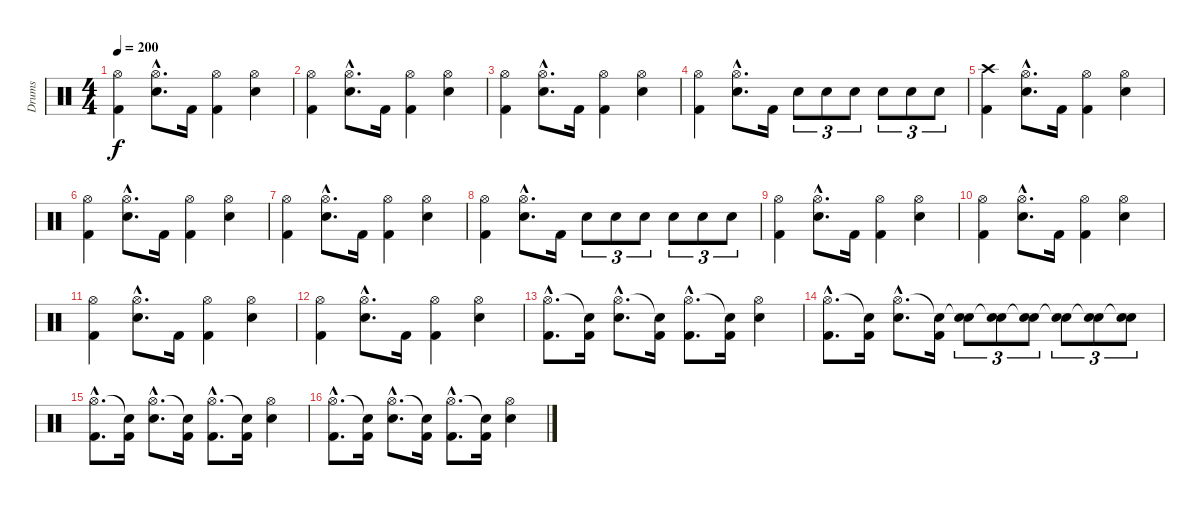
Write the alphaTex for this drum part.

\track ("Drums" "Drums") {instrument percussion}
\staff {score}
\articulation defaults
\ts (4 4)
\tempo 200
\clef neutral
\ks c
("Hi-Hat (open)" "Kick (hit) 2").4{dy f} ("Hi-Hat (open)"{hac} "Electric Snare (hit)"{hac}).8{d} "Kick (hit) 2".16 ("Hi-Hat (open)" "Kick (hit) 2").4 ("Hi-Hat (open)" "Electric Snare (hit)").4 |
("Hi-Hat (open)" "Kick (hit) 2").4 ("Hi-Hat (open)"{hac} "Electric Snare (hit)"{hac}).8{d} "Kick (hit) 2".16 ("Hi-Hat (open)" "Kick (hit) 2").4 ("Hi-Hat (open)" "Electric Snare (hit)").4 |
("Hi-Hat (open)" "Kick (hit) 2").4 ("Hi-Hat (open)"{hac} "Electric Snare (hit)"{hac}).8{d} "Kick (hit) 2".16 ("Hi-Hat (open)" "Kick (hit) 2").4 ("Hi-Hat (open)" "Electric Snare (hit)").4 |
("Hi-Hat (open)" "Kick (hit) 2").4 ("Hi-Hat (open)"{hac} "Electric Snare (hit)"{hac}).8{d} "Kick (hit) 2".16 "Electric Snare (hit)".8{tu (3 2)} "Electric Snare (hit)".8{tu (3 2)} "Electric Snare (hit)".8{tu (3 2)} "Electric Snare (hit)".8{tu (3 2)} "Electric Snare (hit)".8{tu (3 2)} "Electric Snare (hit)".8{tu (3 2)} |
("Crash high (hit)" "Kick (hit) 2").4 ("Hi-Hat (open)"{hac} "Electric Snare (hit)"{hac}).8{d} "Kick (hit) 2".16 ("Hi-Hat (open)" "Kick (hit) 2").4 ("Hi-Hat (open)" "Electric Snare (hit)").4 |
("Hi-Hat (open)" "Kick (hit) 2").4 ("Hi-Hat (open)"{hac} "Electric Snare (hit)"{hac}).8{d} "Kick (hit) 2".16 ("Hi-Hat (open)" "Kick (hit) 2").4 ("Hi-Hat (open)" "Electric Snare (hit)").4 |
("Hi-Hat (open)" "Kick (hit) 2").4 ("Hi-Hat (open)"{hac} "Electric Snare (hit)"{hac}).8{d} "Kick (hit) 2".16 ("Hi-Hat (open)" "Kick (hit) 2").4 ("Hi-Hat (open)" "Electric Snare (hit)").4 |
("Hi-Hat (open)" "Kick (hit) 2").4 ("Hi-Hat (open)"{hac} "Electric Snare (hit)"{hac}).8{d} "Kick (hit) 2".16 "Electric Snare (hit)".8{tu (3 2)} "Electric Snare (hit)".8{tu (3 2)} "Electric Snare (hit)".8{tu (3 2)} "Electric Snare (hit)".8{tu (3 2)} "Electric Snare (hit)".8{tu (3 2)} "Electric Snare (hit)".8{tu (3 2)} |
("Hi-Hat (open)" "Kick (hit) 2").4 ("Hi-Hat (open)"{hac} "Electric Snare (hit)"{hac}).8{d} "Kick (hit) 2".16 ("Hi-Hat (open)" "Kick (hit) 2").4 ("Hi-Hat (open)" "Electric Snare (hit)").4 |
("Hi-Hat (open)" "Kick (hit) 2").4 ("Hi-Hat (open)"{hac} "Electric Snare (hit)"{hac}).8{d} "Kick (hit) 2".16 ("Hi-Hat (open)" "Kick (hit) 2").4 ("Hi-Hat (open)" "Electric Snare (hit)").4 |
("Hi-Hat (open)" "Kick (hit) 2").4 ("Hi-Hat (open)"{hac} "Electric Snare (hit)"{hac}).8{d} "Kick (hit) 2".16 ("Hi-Hat (open)" "Kick (hit) 2").4 ("Hi-Hat (open)" "Electric Snare (hit)").4 |
("Hi-Hat (open)" "Kick (hit) 2").4 ("Hi-Hat (open)"{hac} "Electric Snare (hit)"{hac}).8{d} "Kick (hit) 2".16 ("Hi-Hat (open)" "Kick (hit) 2").4 ("Hi-Hat (open)" "Electric Snare (hit)").4 |
("Hi-Hat (open)"{hac} "Kick (hit) 2"{hac}).8{d} ("Snare (hit)"{t} "Kick (hit) 2").16 ("Hi-Hat (open)"{hac} "Electric Snare (hit)"{hac}).8{d} ("Snare (hit)"{t} "Kick (hit) 2").16 ("Hi-Hat (open)"{hac} "Kick (hit) 2"{hac}).8{d} ("Snare (hit)"{t} "Kick (hit) 2").16 ("Hi-Hat (open)" "Electric Snare (hit)").4 |
("Hi-Hat (open)"{hac} "Kick (hit) 2"{hac}).8{d} ("Snare (hit)"{t} "Kick (hit) 2").16 ("Hi-Hat (open)"{hac} "Electric Snare (hit)"{hac}).8{d} ("Snare (hit)"{t} "Kick (hit) 2").16 ("Snare (hit)"{t} "Electric Snare (hit)").8{tu (3 2)} ("Snare (hit)"{t} "Electric Snare (hit)").8{tu (3 2)} ("Snare (hit)"{t} "Electric Snare (hit)").8{tu (3 2)} ("Snare (hit)"{t} "Electric Snare (hit)").8{tu (3 2)} ("Snare (hit)"{t} "Electric Snare (hit)").8{tu (3 2)} ("Snare (hit)"{t} "Electric Snare (hit)").8{tu (3 2)} |
("Hi-Hat (open)"{hac} "Kick (hit) 2"{hac}).8{d} ("Snare (hit)"{t} "Kick (hit) 2").16 ("Hi-Hat (open)"{hac} "Electric Snare (hit)"{hac}).8{d} ("Snare (hit)"{t} "Kick (hit) 2").16 ("Hi-Hat (open)"{hac} "Kick (hit) 2"{hac}).8{d} ("Snare (hit)"{t} "Kick (hit) 2").16 ("Hi-Hat (open)" "Electric Snare (hit)").4 |
("Hi-Hat (open)"{hac} "Kick (hit) 2"{hac}).8{d} ("Snare (hit)"{t} "Kick (hit) 2").16 ("Hi-Hat (open)"{hac} "Electric Snare (hit)"{hac}).8{d} ("Snare (hit)"{t} "Kick (hit) 2").16 ("Hi-Hat (open)"{hac} "Kick (hit) 2"{hac}).8{d} ("Snare (hit)"{t} "Kick (hit) 2").16 ("Hi-Hat (open)" "Electric Snare (hit)").4
